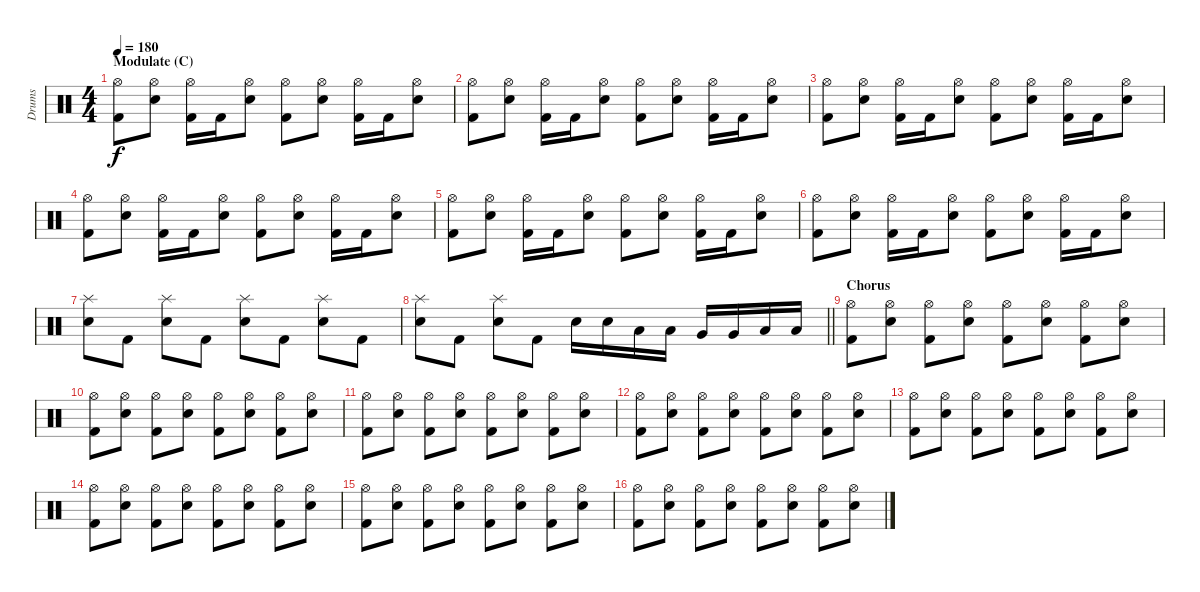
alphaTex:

\track ("Drums" "Drums") {instrument percussion}
\staff {score}
\articulation defaults
\ts (4 4)
\section ("" "Modulate (C)")
\tempo 180
\clef neutral
\ks c
("Hi-Hat (open)" "Kick (hit) 2").8{dy f} ("Hi-Hat (open)" "Snare (hit) 2").8 ("Hi-Hat (open)" "Kick (hit) 2").16 "Kick (hit) 2".16 ("Hi-Hat (open)" "Snare (hit) 2").8 ("Hi-Hat (open)" "Kick (hit) 2").8 ("Hi-Hat (open)" "Snare (hit) 2").8 ("Hi-Hat (open)" "Kick (hit) 2").16 "Kick (hit) 2".16 ("Hi-Hat (open)" "Snare (hit) 2").8 |
("Hi-Hat (open)" "Kick (hit) 2").8 ("Hi-Hat (open)" "Snare (hit) 2").8 ("Hi-Hat (open)" "Kick (hit) 2").16 "Kick (hit) 2".16 ("Hi-Hat (open)" "Snare (hit) 2").8 ("Hi-Hat (open)" "Kick (hit) 2").8 ("Hi-Hat (open)" "Snare (hit) 2").8 ("Hi-Hat (open)" "Kick (hit) 2").16 "Kick (hit) 2".16 ("Hi-Hat (open)" "Snare (hit) 2").8 |
("Hi-Hat (open)" "Kick (hit) 2").8 ("Hi-Hat (open)" "Snare (hit) 2").8 ("Hi-Hat (open)" "Kick (hit) 2").16 "Kick (hit) 2".16 ("Hi-Hat (open)" "Snare (hit) 2").8 ("Hi-Hat (open)" "Kick (hit) 2").8 ("Hi-Hat (open)" "Snare (hit) 2").8 ("Hi-Hat (open)" "Kick (hit) 2").16 "Kick (hit) 2".16 ("Hi-Hat (open)" "Snare (hit) 2").8 |
("Hi-Hat (open)" "Kick (hit) 2").8 ("Hi-Hat (open)" "Snare (hit) 2").8 ("Hi-Hat (open)" "Kick (hit) 2").16 "Kick (hit) 2".16 ("Hi-Hat (open)" "Snare (hit) 2").8 ("Hi-Hat (open)" "Kick (hit) 2").8 ("Hi-Hat (open)" "Snare (hit) 2").8 ("Hi-Hat (open)" "Kick (hit) 2").16 "Kick (hit) 2".16 ("Hi-Hat (open)" "Snare (hit) 2").8 |
("Hi-Hat (open)" "Kick (hit) 2").8 ("Hi-Hat (open)" "Snare (hit) 2").8 ("Hi-Hat (open)" "Kick (hit) 2").16 "Kick (hit) 2".16 ("Hi-Hat (open)" "Snare (hit) 2").8 ("Hi-Hat (open)" "Kick (hit) 2").8 ("Hi-Hat (open)" "Snare (hit) 2").8 ("Hi-Hat (open)" "Kick (hit) 2").16 "Kick (hit) 2".16 ("Hi-Hat (open)" "Snare (hit) 2").8 |
("Hi-Hat (open)" "Kick (hit) 2").8 ("Hi-Hat (open)" "Snare (hit) 2").8 ("Hi-Hat (open)" "Kick (hit) 2").16 "Kick (hit) 2".16 ("Hi-Hat (open)" "Snare (hit) 2").8 ("Hi-Hat (open)" "Kick (hit) 2").8 ("Hi-Hat (open)" "Snare (hit) 2").8 ("Hi-Hat (open)" "Kick (hit) 2").16 "Kick (hit) 2".16 ("Hi-Hat (open)" "Snare (hit) 2").8 |
("Splash (hit)" "Snare (hit) 2").8 "Kick (hit) 2".8 ("Splash (hit)" "Snare (hit) 2").8 "Kick (hit) 2".8 ("Splash (hit)" "Snare (hit) 2").8 "Kick (hit) 2".8 ("Splash (hit)" "Snare (hit) 2").8 "Kick (hit) 2".8 |
\barLineRight lightlight
("Splash (hit)" "Snare (hit) 2").8 "Kick (hit) 2".8 ("Splash (hit)" "Snare (hit) 2").8 "Kick (hit) 2".8 "Snare (hit) 2".16 "Snare (hit) 2".16 "Low Tom (hit)".16 "Low Tom (hit)".16 "Very Low Tom (hit)".16 "Very Low Tom (hit)".16 "Low Floor Tom (hit)".16 "Low Floor Tom (hit)".16 |
\section ("" "Chorus")
("Hi-Hat (open)" "Kick (hit) 2").8 ("Hi-Hat (open)" "Snare (hit) 2").8 ("Hi-Hat (open)" "Kick (hit) 2").8 ("Hi-Hat (open)" "Snare (hit) 2").8 ("Hi-Hat (open)" "Kick (hit) 2").8 ("Hi-Hat (open)" "Snare (hit) 2").8 ("Hi-Hat (open)" "Kick (hit) 2").8 ("Hi-Hat (open)" "Snare (hit) 2").8 |
("Hi-Hat (open)" "Kick (hit) 2").8 ("Hi-Hat (open)" "Snare (hit) 2").8 ("Hi-Hat (open)" "Kick (hit) 2").8 ("Hi-Hat (open)" "Snare (hit) 2").8 ("Hi-Hat (open)" "Kick (hit) 2").8 ("Hi-Hat (open)" "Snare (hit) 2").8 ("Hi-Hat (open)" "Kick (hit) 2").8 ("Hi-Hat (open)" "Snare (hit) 2").8 |
("Hi-Hat (open)" "Kick (hit) 2").8 ("Hi-Hat (open)" "Snare (hit) 2").8 ("Hi-Hat (open)" "Kick (hit) 2").8 ("Hi-Hat (open)" "Snare (hit) 2").8 ("Hi-Hat (open)" "Kick (hit) 2").8 ("Hi-Hat (open)" "Snare (hit) 2").8 ("Hi-Hat (open)" "Kick (hit) 2").8 ("Hi-Hat (open)" "Snare (hit) 2").8 |
("Hi-Hat (open)" "Kick (hit) 2").8 ("Hi-Hat (open)" "Snare (hit) 2").8 ("Hi-Hat (open)" "Kick (hit) 2").8 ("Hi-Hat (open)" "Snare (hit) 2").8 ("Hi-Hat (open)" "Kick (hit) 2").8 ("Hi-Hat (open)" "Snare (hit) 2").8 ("Hi-Hat (open)" "Kick (hit) 2").8 ("Hi-Hat (open)" "Snare (hit) 2").8 |
("Hi-Hat (open)" "Kick (hit) 2").8 ("Hi-Hat (open)" "Snare (hit) 2").8 ("Hi-Hat (open)" "Kick (hit) 2").8 ("Hi-Hat (open)" "Snare (hit) 2").8 ("Hi-Hat (open)" "Kick (hit) 2").8 ("Hi-Hat (open)" "Snare (hit) 2").8 ("Hi-Hat (open)" "Kick (hit) 2").8 ("Hi-Hat (open)" "Snare (hit) 2").8 |
("Hi-Hat (open)" "Kick (hit) 2").8 ("Hi-Hat (open)" "Snare (hit) 2").8 ("Hi-Hat (open)" "Kick (hit) 2").8 ("Hi-Hat (open)" "Snare (hit) 2").8 ("Hi-Hat (open)" "Kick (hit) 2").8 ("Hi-Hat (open)" "Snare (hit) 2").8 ("Hi-Hat (open)" "Kick (hit) 2").8 ("Hi-Hat (open)" "Snare (hit) 2").8 |
("Hi-Hat (open)" "Kick (hit) 2").8 ("Hi-Hat (open)" "Snare (hit) 2").8 ("Hi-Hat (open)" "Kick (hit) 2").8 ("Hi-Hat (open)" "Snare (hit) 2").8 ("Hi-Hat (open)" "Kick (hit) 2").8 ("Hi-Hat (open)" "Snare (hit) 2").8 ("Hi-Hat (open)" "Kick (hit) 2").8 ("Hi-Hat (open)" "Snare (hit) 2").8 |
("Hi-Hat (open)" "Kick (hit) 2").8 ("Hi-Hat (open)" "Snare (hit) 2").8 ("Hi-Hat (open)" "Kick (hit) 2").8 ("Hi-Hat (open)" "Snare (hit) 2").8 ("Hi-Hat (open)" "Kick (hit) 2").8 ("Hi-Hat (open)" "Snare (hit) 2").8 ("Hi-Hat (open)" "Kick (hit) 2").8 ("Hi-Hat (open)" "Snare (hit) 2").8
